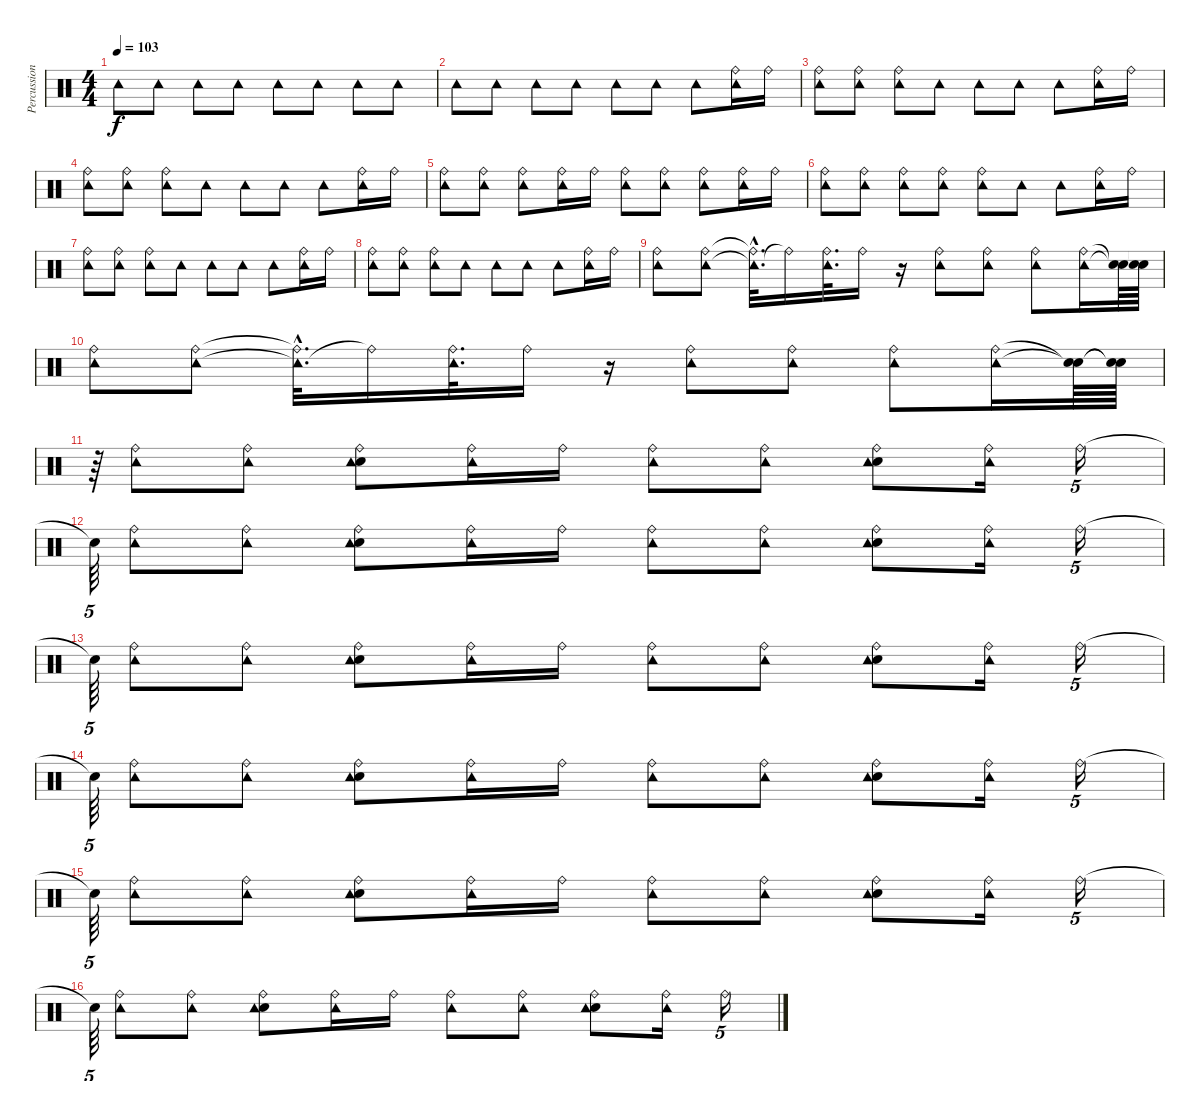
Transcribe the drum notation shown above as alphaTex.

\track ("Percussion" "Percussion") {instrument percussion}
\staff {score}
\articulation defaults
\ts (4 4)
\tempo 103
\clef neutral
\ks c "Tambourine (hit)".8{dy f} "Tambourine (hit)".8 "Tambourine (hit)".8 "Tambourine (hit)".8 "Tambourine (hit)".8 "Tambourine (hit)".8 "Tambourine (hit)".8 "Tambourine (hit)".8
|
"Tambourine (hit)".8 "Tambourine (hit)".8 "Tambourine (hit)".8 "Tambourine (hit)".8 "Tambourine (hit)".8 "Tambourine (hit)".8 "Tambourine (hit)".8 ("Ride (bell)" "Tambourine (hit)").16 "Ride (bell)".16 |
("Ride (bell)" "Tambourine (hit)").8 ("Ride (bell)" "Tambourine (hit)").8 ("Ride (bell)" "Tambourine (hit)").8 "Tambourine (hit)".8 "Tambourine (hit)".8 "Tambourine (hit)".8 "Tambourine (hit)".8 ("Ride (bell)" "Tambourine (hit)").16 "Ride (bell)".16 |
("Ride (bell)" "Tambourine (hit)").8 ("Tambourine (hit)" "Ride (bell)").8 ("Ride (bell)" "Tambourine (hit)").8 "Tambourine (hit)".8 "Tambourine (hit)".8 "Tambourine (hit)".8 "Tambourine (hit)".8 ("Ride (bell)" "Tambourine (hit)").16 "Ride (bell)".16 |
("Tambourine (hit)" "Ride (bell)").8 ("Tambourine (hit)" "Ride (bell)").8 ("Ride (bell)" "Tambourine (hit)").8 ("Ride (bell)" "Tambourine (hit)").16 "Ride (bell)".16 ("Ride (bell)" "Tambourine (hit)").8 ("Ride (bell)" "Tambourine (hit)").8 ("Ride (bell)" "Tambourine (hit)").8 ("Ride (bell)" "Tambourine (hit)").16 "Ride (bell)".16 |
("Tambourine (hit)" "Ride (bell)").8 ("Ride (bell)" "Tambourine (hit)").8 ("Ride (bell)" "Tambourine (hit)").8 ("Ride (bell)" "Tambourine (hit)").8 ("Ride (bell)" "Tambourine (hit)").8 "Tambourine (hit)".8 "Tambourine (hit)".8 ("Ride (bell)" "Tambourine (hit)").16 "Ride (bell)".16 |
("Ride (bell)" "Tambourine (hit)").8 ("Ride (bell)" "Tambourine (hit)").8 ("Ride (bell)" "Tambourine (hit)").8 "Tambourine (hit)".8 "Tambourine (hit)".8 "Tambourine (hit)".8 "Tambourine (hit)".8 ("Tambourine (hit)" "Ride (bell)").16 "Ride (bell)".16 |
("Ride (bell)" "Tambourine (hit)").8 ("Ride (bell)" "Tambourine (hit)").8 ("Ride (bell)" "Tambourine (hit)").8 "Tambourine (hit)".8 "Tambourine (hit)".8 "Tambourine (hit)".8 "Tambourine (hit)".8 ("Ride (bell)" "Tambourine (hit)").16 "Ride (bell)".16 |
("Ride (bell)" "Tambourine (hit)").8 ("Tambourine (hit)" "Ride (bell)").8 ("Tambourine (hit)"{t} "Ride (bell)"{hac t}).32{d} "Ride (bell)"{t}.16 ("Ride (bell)" "Tambourine (hit)").32{d} "Ride (bell)".16 r.16 ("Ride (bell)" "Tambourine (hit)").8 ("Ride (bell)" "Tambourine (hit)").8 ("Ride (bell)" "Tambourine (hit)").8 ("Ride (bell)" "Tambourine (hit)").16 ("Snare (hit)"{t} "Snare (hit)"{t}).64 ("Snare (hit)"{t} "Snare (hit)"{t}).64 |
("Ride (bell)" "Tambourine (hit)").8 ("Tambourine (hit)" "Ride (bell)").8 ("Tambourine (hit)"{t} "Ride (bell)"{hac t}).32{d} "Ride (bell)"{t}.16 ("Ride (bell)" "Tambourine (hit)").32{d} "Ride (bell)".16 r.16 ("Ride (bell)" "Tambourine (hit)").8 ("Ride (bell)" "Tambourine (hit)").8 ("Ride (bell)" "Tambourine (hit)").8 ("Ride (bell)" "Tambourine (hit)").16 ("Snare (hit)"{t} "Snare (hit)"{t}).64 ("Snare (hit)"{t} "Snare (hit)"{t}).64 |
r.64{tu (5 4)} ("Ride (bell)" "Tambourine (hit)").8 ("Ride (bell)" "Tambourine (hit)").8 ("Snare (hit) 2" "Ride (bell)" "Tambourine (hit)").8 ("Ride (bell)" "Tambourine (hit)").16 "Ride (bell)".16 ("Ride (bell)" "Tambourine (hit)").8 ("Ride (bell)" "Tambourine (hit)").8 ("Snare (hit) 2" "Ride (bell)" "Tambourine (hit)").8 ("Ride (bell)" "Tambourine (hit)").16 "Ride (bell)".16{tu (5 4)} |
"Snare (hit)"{t}.64{tu (5 4)} ("Ride (bell)" "Tambourine (hit)").8 ("Ride (bell)" "Tambourine (hit)").8 ("Snare (hit) 2" "Ride (bell)" "Tambourine (hit)").8 ("Ride (bell)" "Tambourine (hit)").16 "Ride (bell)".16 ("Ride (bell)" "Tambourine (hit)").8 ("Ride (bell)" "Tambourine (hit)").8 ("Snare (hit) 2" "Ride (bell)" "Tambourine (hit)").8 ("Ride (bell)" "Tambourine (hit)").16 "Ride (bell)".16{tu (5 4)} |
"Snare (hit)"{t}.64{tu (5 4)} ("Ride (bell)" "Tambourine (hit)").8 ("Ride (bell)" "Tambourine (hit)").8 ("Snare (hit) 2" "Ride (bell)" "Tambourine (hit)").8 ("Ride (bell)" "Tambourine (hit)").16 "Ride (bell)".16 ("Ride (bell)" "Tambourine (hit)").8 ("Ride (bell)" "Tambourine (hit)").8 ("Snare (hit) 2" "Ride (bell)" "Tambourine (hit)").8 ("Ride (bell)" "Tambourine (hit)").16 "Ride (bell)".16{tu (5 4)} |
"Snare (hit)"{t}.64{tu (5 4)} ("Ride (bell)" "Tambourine (hit)").8 ("Ride (bell)" "Tambourine (hit)").8 ("Snare (hit) 2" "Ride (bell)" "Tambourine (hit)").8 ("Ride (bell)" "Tambourine (hit)").16 "Ride (bell)".16 ("Ride (bell)" "Tambourine (hit)").8 ("Ride (bell)" "Tambourine (hit)").8 ("Snare (hit) 2" "Ride (bell)" "Tambourine (hit)").8 ("Ride (bell)" "Tambourine (hit)").16 "Ride (bell)".16{tu (5 4)} |
"Snare (hit)"{t}.64{tu (5 4)} ("Ride (bell)" "Tambourine (hit)").8 ("Ride (bell)" "Tambourine (hit)").8 ("Snare (hit) 2" "Ride (bell)" "Tambourine (hit)").8 ("Ride (bell)" "Tambourine (hit)").16 "Ride (bell)".16 ("Ride (bell)" "Tambourine (hit)").8 ("Ride (bell)" "Tambourine (hit)").8 ("Snare (hit) 2" "Ride (bell)" "Tambourine (hit)").8 ("Ride (bell)" "Tambourine (hit)").16 "Ride (bell)".16{tu (5 4)} |
"Snare (hit)"{t}.64{tu (5 4)} ("Ride (bell)" "Tambourine (hit)").8 ("Ride (bell)" "Tambourine (hit)").8 ("Snare (hit) 2" "Ride (bell)" "Tambourine (hit)").8 ("Ride (bell)" "Tambourine (hit)").16 "Ride (bell)".16 ("Ride (bell)" "Tambourine (hit)").8 ("Ride (bell)" "Tambourine (hit)").8 ("Snare (hit) 2" "Ride (bell)" "Tambourine (hit)").8 ("Ride (bell)" "Tambourine (hit)").16 "Ride (bell)".16{tu (5 4)}
